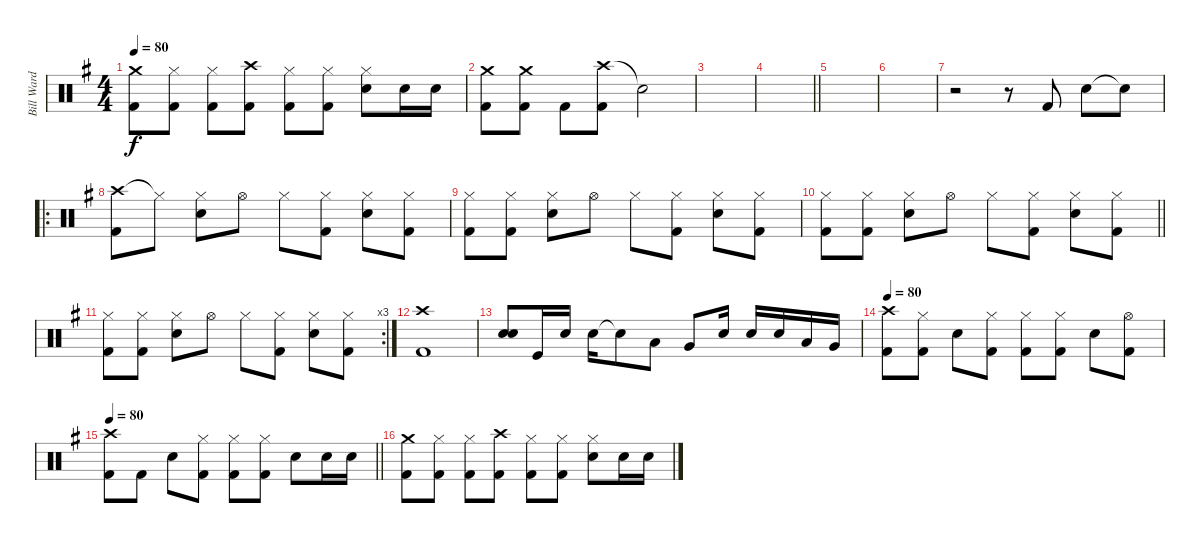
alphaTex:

\track ("Bill Ward" "Bill Ward") {instrument percussion}
\staff {score}
\articulation defaults
\ts (4 4)
\tempo 80
\clef neutral
\ks g
("Crash medium (hit)" "Kick (hit) 2").8{dy f} ("Hi-Hat (closed)" "Kick (hit) 2").8 ("Hi-Hat (closed)" "Kick (hit) 2").8 ("Crash high (hit)" "Kick (hit) 2").8 ("Hi-Hat (closed)" "Kick (hit) 2").8 ("Hi-Hat (closed)" "Kick (hit) 2").8 ("Hi-Hat (closed)" "Snare (hit) 2").8 "Snare (hit) 2".16 "Snare (hit) 2".16 |
("Crash medium (hit)" "Kick (hit) 2").8 ("Crash medium (hit)" "Kick (hit) 2").8 "Kick (hit) 2".8 ("Crash high (hit)" "Kick (hit) 2").8 "Snare (hit)"{t}.2 |
|
\barLineRight lightlight
|
|
|
r.2 r.8 "Kick (hit) 2".8 "Snare (hit) 2".8 "Snare (hit)"{t}.8 |
\ro
("Crash high (hit)" "Kick (hit) 2").8 "Hi-Hat (closed)"{t}.8 ("Hi-Hat (closed)" "Snare (hit) 2").8 "Hi-Hat (open)".8 "Hi-Hat (closed)".8 ("Hi-Hat (closed)" "Kick (hit) 2").8 ("Hi-Hat (closed)" "Snare (hit) 2").8 ("Hi-Hat (closed)" "Kick (hit) 2").8 |
("Hi-Hat (closed)" "Kick (hit) 2").8 ("Hi-Hat (closed)" "Kick (hit) 2").8 ("Hi-Hat (closed)" "Snare (hit) 2").8 "Hi-Hat (open)".8 "Hi-Hat (closed)".8 ("Hi-Hat (closed)" "Kick (hit) 2").8 ("Hi-Hat (closed)" "Snare (hit) 2").8 ("Hi-Hat (closed)" "Kick (hit) 2").8 |
\barLineRight lightlight
("Hi-Hat (closed)" "Kick (hit) 2").8 ("Hi-Hat (closed)" "Kick (hit) 2").8 ("Hi-Hat (closed)" "Snare (hit) 2").8 "Hi-Hat (open)".8 "Hi-Hat (closed)".8 ("Hi-Hat (closed)" "Kick (hit) 2").8 ("Hi-Hat (closed)" "Snare (hit) 2").8 ("Hi-Hat (closed)" "Kick (hit) 2").8 |
\rc 3
("Hi-Hat (closed)" "Kick (hit) 2").8 ("Hi-Hat (closed)" "Kick (hit) 2").8 ("Hi-Hat (closed)" "Snare (hit) 2").8 "Hi-Hat (open)".8 "Hi-Hat (closed)".8 ("Hi-Hat (closed)" "Kick (hit) 2").8 ("Hi-Hat (closed)" "Snare (hit) 2").8 ("Hi-Hat (closed)" "Kick (hit) 2").8 |
("Crash high (hit)" "Kick (hit) 2").1 |
("Snare (hit) 2" "Snare (hit) 2").8 "Kick (hit)".16 "Snare (hit) 2".16 "Snare (hit) 2".16 "Snare (hit)"{t}.8 "Low Tom (hit)".8 "Very Low Tom (hit)".8 "Snare (hit) 2".16 "Snare (hit) 2".16 "Snare (hit) 2".16 "Low Tom (hit)".16 "Very Low Tom (hit)".16 |
\tempo 80
("Crash high (hit)" "Kick (hit) 2").8 ("Hi-Hat (closed)" "Kick (hit) 2").8 "Snare (hit) 2".8 ("Hi-Hat (closed)" "Kick (hit) 2").8 ("Hi-Hat (closed)" "Kick (hit) 2").8 ("Hi-Hat (closed)" "Kick (hit) 2").8 "Snare (hit) 2".8 ("Hi-Hat (open)" "Kick (hit) 2").8 |
\tempo 80
\barLineRight lightlight
("Crash high (hit)" "Kick (hit) 2").8 "Kick (hit) 2".8 "Snare (hit) 2".8 ("Hi-Hat (closed)" "Kick (hit) 2").8 ("Hi-Hat (closed)" "Kick (hit) 2").8 ("Hi-Hat (closed)" "Kick (hit) 2").8 "Snare (hit) 2".8 "Snare (hit) 2".16 "Snare (hit) 2".16 |
("Crash medium (hit)" "Kick (hit) 2").8 ("Hi-Hat (closed)" "Kick (hit) 2").8 ("Hi-Hat (closed)" "Kick (hit) 2").8 ("Crash high (hit)" "Kick (hit) 2").8 ("Hi-Hat (closed)" "Kick (hit) 2").8 ("Hi-Hat (closed)" "Kick (hit) 2").8 ("Hi-Hat (closed)" "Snare (hit) 2").8 "Snare (hit) 2".16 "Snare (hit) 2".16
